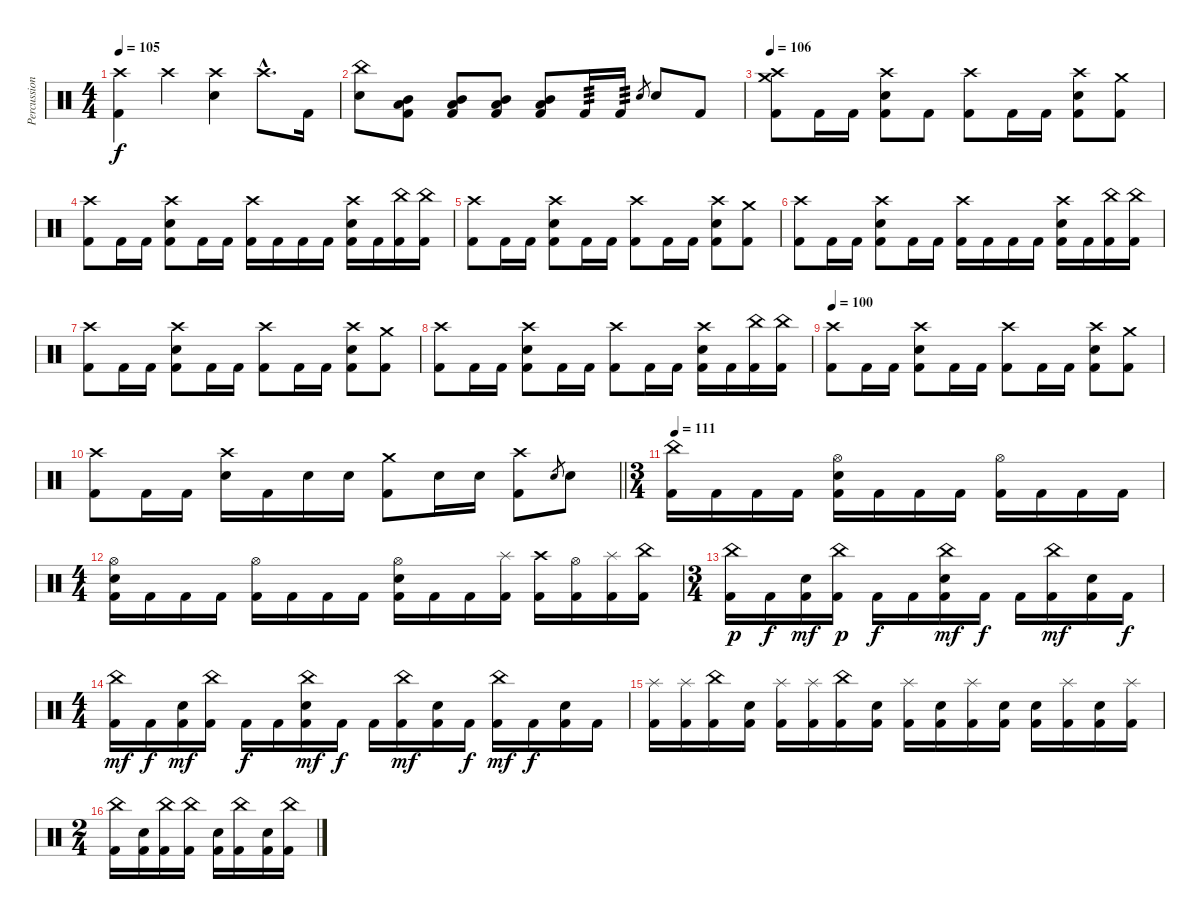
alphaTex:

\track ("Percussion" "Percussion") {instrument percussion}
\staff {score}
\articulation defaults
\ts (4 4)
\tempo 105
\clef neutral
\ks c
("Crash high (hit)" "Kick (hit) 2").4{dy f} "Crash high (hit)".4 ("Crash high (hit)" "Electric Snare (hit)").4 "Crash high (hit)"{hac}.8{d} "Kick (hit) 2".16 |
("China (hit)" "Electric Snare (hit)").8 ("Mid Tom (hit)" "Low Floor Tom (hit)" "Kick (hit) 2").8 ("Low Floor Tom (hit)" "Mid Tom (hit)" "Kick (hit) 2").8 ("Kick (hit) 2" "Mid Tom (hit)" "Low Floor Tom (hit)").8 ("Kick (hit) 2" "Low Floor Tom (hit)" "Mid Tom (hit)").8 "Kick (hit) 2".16{tp 3} "Kick (hit) 2".16{tp 3} "Electric Snare (hit)".8{gr} "Electric Snare (hit)".8 "Kick (hit) 2".8 |
\tempo 106
("Crash high (hit)" "Crash medium (hit)" "Kick (hit) 2").8 "Kick (hit) 2".16 "Kick (hit) 2".16 ("Kick (hit) 2" "Crash high (hit)" "Electric Snare (hit)").8 "Kick (hit) 2".8 ("Kick (hit) 2" "Crash high (hit)").8 "Kick (hit) 2".16 "Kick (hit) 2".16 ("Kick (hit) 2" "Crash high (hit)" "Electric Snare (hit)").8 ("Kick (hit) 2" "Crash medium (hit)").8 |
("Crash high (hit)" "Kick (hit) 2").8 "Kick (hit) 2".16 "Kick (hit) 2".16 ("Kick (hit) 2" "Crash high (hit)" "Electric Snare (hit)").8 "Kick (hit) 2".16 "Kick (hit) 2".16 ("Kick (hit) 2" "Crash high (hit)").16 "Kick (hit) 2".16 "Kick (hit) 2".16 "Kick (hit) 2".16 ("Kick (hit) 2" "Crash high (hit)" "Electric Snare (hit)").16 "Kick (hit) 2".16 ("Kick (hit) 2" "China (hit)").16 ("Kick (hit) 2" "China (hit)").16 |
("Crash high (hit)" "Kick (hit) 2").8 "Kick (hit) 2".16 "Kick (hit) 2".16 ("Kick (hit) 2" "Crash high (hit)" "Electric Snare (hit)").8 "Kick (hit) 2".16 "Kick (hit) 2".16 ("Kick (hit) 2" "Crash high (hit)").8 "Kick (hit) 2".16 "Kick (hit) 2".16 ("Kick (hit) 2" "Crash high (hit)" "Electric Snare (hit)").8 ("Kick (hit) 2" "Crash medium (hit)").8 |
("Crash high (hit)" "Kick (hit) 2").8 "Kick (hit) 2".16 "Kick (hit) 2".16 ("Kick (hit) 2" "Crash high (hit)" "Electric Snare (hit)").8 "Kick (hit) 2".16 "Kick (hit) 2".16 ("Kick (hit) 2" "Crash high (hit)").16 "Kick (hit) 2".16 "Kick (hit) 2".16 "Kick (hit) 2".16 ("Kick (hit) 2" "Crash high (hit)" "Electric Snare (hit)").16 "Kick (hit) 2".16 ("Kick (hit) 2" "China (hit)").16 ("Kick (hit) 2" "China (hit)").16 |
("Crash high (hit)" "Kick (hit) 2").8 "Kick (hit) 2".16 "Kick (hit) 2".16 ("Kick (hit) 2" "Crash high (hit)" "Electric Snare (hit)").8 "Kick (hit) 2".16 "Kick (hit) 2".16 ("Kick (hit) 2" "Crash high (hit)").8 "Kick (hit) 2".16 "Kick (hit) 2".16 ("Kick (hit) 2" "Crash high (hit)" "Electric Snare (hit)").8 ("Kick (hit) 2" "Crash medium (hit)").8 |
("Crash high (hit)" "Kick (hit) 2").8 "Kick (hit) 2".16 "Kick (hit) 2".16 ("Kick (hit) 2" "Crash high (hit)" "Electric Snare (hit)").8 "Kick (hit) 2".16 "Kick (hit) 2".16 ("Kick (hit) 2" "Crash high (hit)").8 "Kick (hit) 2".16 "Kick (hit) 2".16 ("Kick (hit) 2" "Crash high (hit)" "Electric Snare (hit)").16 "Kick (hit) 2".16 ("Kick (hit) 2" "China (hit)").16 ("Kick (hit) 2" "China (hit)").16 |
\tempo 100
("Crash high (hit)" "Kick (hit) 2").8 "Kick (hit) 2".16 "Kick (hit) 2".16 ("Kick (hit) 2" "Crash high (hit)" "Electric Snare (hit)").8 "Kick (hit) 2".16 "Kick (hit) 2".16 ("Kick (hit) 2" "Crash high (hit)").8 "Kick (hit) 2".16 "Kick (hit) 2".16 ("Kick (hit) 2" "Crash high (hit)" "Electric Snare (hit)").8 ("Kick (hit) 2" "Crash medium (hit)").8 |
\barLineRight lightlight
("Kick (hit) 2" "Crash high (hit)").8 "Kick (hit) 2".16 "Kick (hit) 2".16 ("Crash high (hit)" "Electric Snare (hit)").16 "Kick (hit) 2".16 "Electric Snare (hit)".16 "Electric Snare (hit)".16 ("Kick (hit) 2" "Crash medium (hit)").8 "Electric Snare (hit)".16 "Electric Snare (hit)".16 ("Kick (hit) 2" "Crash high (hit)").8 "Electric Snare (hit)".8{gr} "Electric Snare (hit)".8 |
\ts (3 4)
\tempo 111
("Kick (hit) 2" "China (hit)").16 "Kick (hit) 2".16 "Kick (hit) 2".16 "Kick (hit) 2".16 ("Kick (hit) 2" "Hi-Hat (open)" "Electric Snare (hit)").16 "Kick (hit) 2".16 "Kick (hit) 2".16 "Kick (hit) 2".16 ("Kick (hit) 2" "Hi-Hat (open)").16 "Kick (hit) 2".16 "Kick (hit) 2".16 "Kick (hit) 2".16 |
\ts (4 4)
("Kick (hit) 2" "Hi-Hat (open)" "Electric Snare (hit)").16 "Kick (hit) 2".16 "Kick (hit) 2".16 "Kick (hit) 2".16 ("Kick (hit) 2" "Hi-Hat (open)").16 "Kick (hit) 2".16 "Kick (hit) 2".16 "Kick (hit) 2".16 ("Kick (hit) 2" "Hi-Hat (open)" "Electric Snare (hit)").16 "Kick (hit) 2".16 "Kick (hit) 2".16 ("Kick (hit) 2" "Splash (hit)").16 ("Kick (hit) 2" "Crash high (hit)").16 ("Kick (hit) 2" "Hi-Hat (open)").16 ("Kick (hit) 2" "Splash (hit)").16 ("Kick (hit) 2" "China (hit)").16 |
\ts (3 4)
("Kick (hit) 2" "China (hit)").16{dy p} "Kick (hit) 2".16{dy f} ("Kick (hit) 2" "Electric Snare (hit)").16{dy mf} ("Kick (hit) 2" "China (hit)").16{dy p} "Kick (hit) 2".16{dy f} "Kick (hit) 2".16 ("Kick (hit) 2" "China (hit)" "Electric Snare (hit)").16{dy mf} "Kick (hit) 2".16{dy f} "Kick (hit) 2".16 ("Kick (hit) 2" "China (hit)").16{dy mf} ("Kick (hit) 2" "Electric Snare (hit)").16 "Kick (hit) 2".16{dy f} |
\ts (4 4)
("Kick (hit) 2" "China (hit)").16{dy mf} "Kick (hit) 2".16{dy f} ("Kick (hit) 2" "Electric Snare (hit)").16{dy mf} ("Kick (hit) 2" "China (hit)").16 "Kick (hit) 2".16{dy f} "Kick (hit) 2".16 ("Kick (hit) 2" "Electric Snare (hit)" "China (hit)").16{dy mf} "Kick (hit) 2".16{dy f} "Kick (hit) 2".16 ("Kick (hit) 2" "China (hit)").16{dy mf} ("Kick (hit) 2" "Electric Snare (hit)").16 "Kick (hit) 2".16{dy f} ("Kick (hit) 2" "China (hit)").16{dy mf} "Kick (hit) 2".16{dy f} ("Kick (hit) 2" "Electric Snare (hit)").16 "Kick (hit) 2".16 |
("Splash (hit)" "Kick (hit) 2").16 ("Splash (hit)" "Kick (hit) 2").16 ("China (hit)" "Kick (hit) 2").16 ("Electric Snare (hit)" "Kick (hit) 2").16 ("Splash (hit)" "Kick (hit) 2").16 ("Splash (hit)" "Kick (hit) 2").16 ("China (hit)" "Kick (hit) 2").16 ("Electric Snare (hit)" "Kick (hit) 2").16 ("Splash (hit)" "Kick (hit) 2").16 ("Electric Snare (hit)" "Kick (hit) 2").16 ("Splash (hit)" "Kick (hit) 2").16 ("Electric Snare (hit)" "Kick (hit) 2").16 ("Electric Snare (hit)" "Kick (hit) 2").16 ("Splash (hit)" "Kick (hit) 2").16 ("Electric Snare (hit)" "Kick (hit) 2").16 ("Splash (hit)" "Kick (hit) 2").16 |
\ts (2 4)
("China (hit)" "Kick (hit) 2").16 ("Electric Snare (hit)" "Kick (hit) 2").16 ("China (hit)" "Kick (hit) 2").16 ("China (hit)" "Kick (hit) 2").16 ("Electric Snare (hit)" "Kick (hit) 2").16 ("China (hit)" "Kick (hit) 2").16 ("Electric Snare (hit)" "Kick (hit) 2").16 ("China (hit)" "Kick (hit) 2").16
